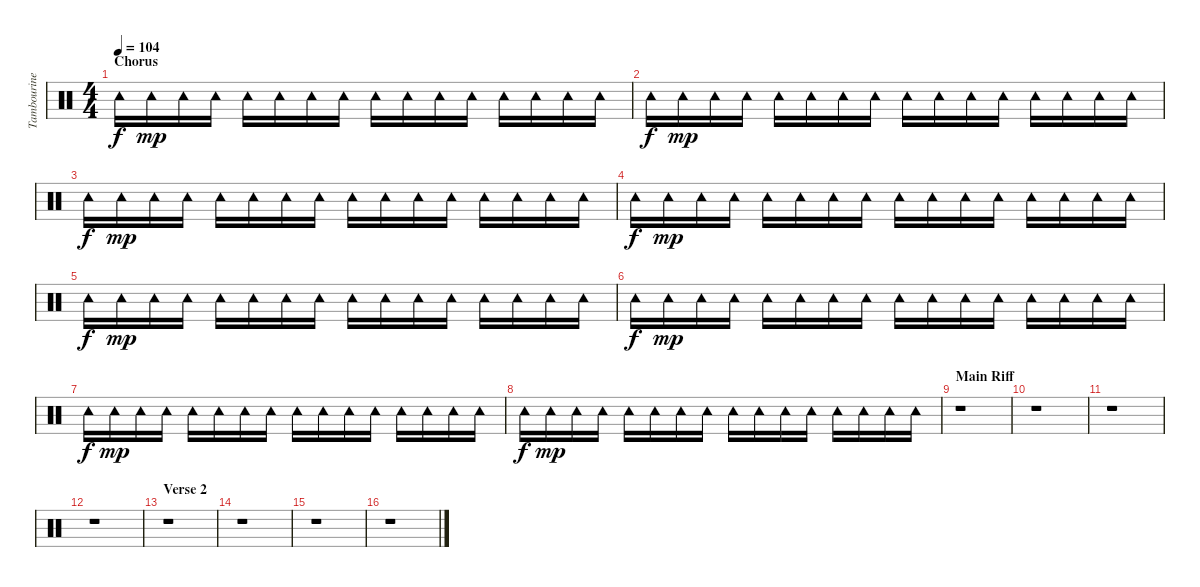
\track ("Tambourine" "Tambourine") {instrument percussion}
\staff {score}
\articulation defaults
\ts (4 4)
\section ("" "Chorus")
\tempo 104
\clef neutral
\ks c "Tambourine (hit)".16{dy f} "Tambourine (hit)".16{dy mp} "Tambourine (hit)".16 "Tambourine (hit)".16 "Tambourine (hit)".16 "Tambourine (hit)".16 "Tambourine (hit)".16 "Tambourine (hit)".16 "Tambourine (hit)".16 "Tambourine (hit)".16 "Tambourine (hit)".16 "Tambourine (hit)".16 "Tambourine (hit)".16 "Tambourine (hit)".16 "Tambourine (hit)".16 "Tambourine (hit)".16
|
"Tambourine (hit)".16{dy f} "Tambourine (hit)".16{dy mp} "Tambourine (hit)".16 "Tambourine (hit)".16 "Tambourine (hit)".16 "Tambourine (hit)".16 "Tambourine (hit)".16 "Tambourine (hit)".16 "Tambourine (hit)".16 "Tambourine (hit)".16 "Tambourine (hit)".16 "Tambourine (hit)".16 "Tambourine (hit)".16 "Tambourine (hit)".16 "Tambourine (hit)".16 "Tambourine (hit)".16 |
"Tambourine (hit)".16{dy f} "Tambourine (hit)".16{dy mp} "Tambourine (hit)".16 "Tambourine (hit)".16 "Tambourine (hit)".16 "Tambourine (hit)".16 "Tambourine (hit)".16 "Tambourine (hit)".16 "Tambourine (hit)".16 "Tambourine (hit)".16 "Tambourine (hit)".16 "Tambourine (hit)".16 "Tambourine (hit)".16 "Tambourine (hit)".16 "Tambourine (hit)".16 "Tambourine (hit)".16 |
"Tambourine (hit)".16{dy f} "Tambourine (hit)".16{dy mp} "Tambourine (hit)".16 "Tambourine (hit)".16 "Tambourine (hit)".16 "Tambourine (hit)".16 "Tambourine (hit)".16 "Tambourine (hit)".16 "Tambourine (hit)".16 "Tambourine (hit)".16 "Tambourine (hit)".16 "Tambourine (hit)".16 "Tambourine (hit)".16 "Tambourine (hit)".16 "Tambourine (hit)".16 "Tambourine (hit)".16 |
"Tambourine (hit)".16{dy f} "Tambourine (hit)".16{dy mp} "Tambourine (hit)".16 "Tambourine (hit)".16 "Tambourine (hit)".16 "Tambourine (hit)".16 "Tambourine (hit)".16 "Tambourine (hit)".16 "Tambourine (hit)".16 "Tambourine (hit)".16 "Tambourine (hit)".16 "Tambourine (hit)".16 "Tambourine (hit)".16 "Tambourine (hit)".16 "Tambourine (hit)".16 "Tambourine (hit)".16 |
"Tambourine (hit)".16{dy f} "Tambourine (hit)".16{dy mp} "Tambourine (hit)".16 "Tambourine (hit)".16 "Tambourine (hit)".16 "Tambourine (hit)".16 "Tambourine (hit)".16 "Tambourine (hit)".16 "Tambourine (hit)".16 "Tambourine (hit)".16 "Tambourine (hit)".16 "Tambourine (hit)".16 "Tambourine (hit)".16 "Tambourine (hit)".16 "Tambourine (hit)".16 "Tambourine (hit)".16 |
"Tambourine (hit)".16{dy f} "Tambourine (hit)".16{dy mp} "Tambourine (hit)".16 "Tambourine (hit)".16 "Tambourine (hit)".16 "Tambourine (hit)".16 "Tambourine (hit)".16 "Tambourine (hit)".16 "Tambourine (hit)".16 "Tambourine (hit)".16 "Tambourine (hit)".16 "Tambourine (hit)".16 "Tambourine (hit)".16 "Tambourine (hit)".16 "Tambourine (hit)".16 "Tambourine (hit)".16 |
"Tambourine (hit)".16{dy f} "Tambourine (hit)".16{dy mp} "Tambourine (hit)".16 "Tambourine (hit)".16 "Tambourine (hit)".16 "Tambourine (hit)".16 "Tambourine (hit)".16 "Tambourine (hit)".16 "Tambourine (hit)".16 "Tambourine (hit)".16 "Tambourine (hit)".16 "Tambourine (hit)".16 "Tambourine (hit)".16 "Tambourine (hit)".16 "Tambourine (hit)".16 "Tambourine (hit)".16 |
\section ("" "Main Riff")
r.1 |
r.1 |
r.1 |
r.1 |
\section ("" "Verse 2")
r.1 |
r.1 |
r.1 |
r.1
